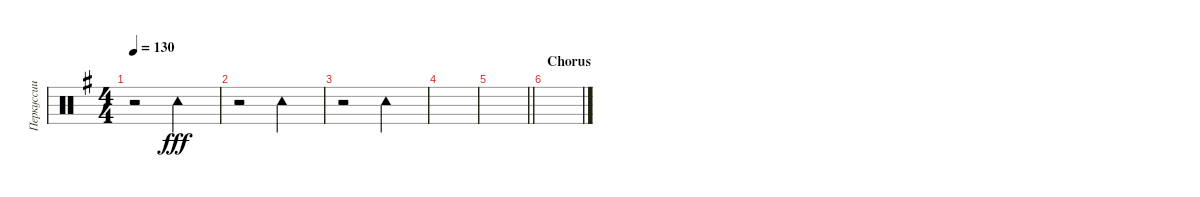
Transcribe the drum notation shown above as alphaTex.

\track ("Перкуссии" "Перкуссии") {instrument percussion}
\staff {score}
\articulation defaults
\ts (4 4)
\tempo 130
\clef neutral
\ks eminor
r.2{dy fff} "Tambourine (hit)".2 |
r.2 "Tambourine (hit)".2 |
r.2 "Tambourine (hit)".2 |
|
\barLineRight lightlight
|
\section ("" "Chorus")
